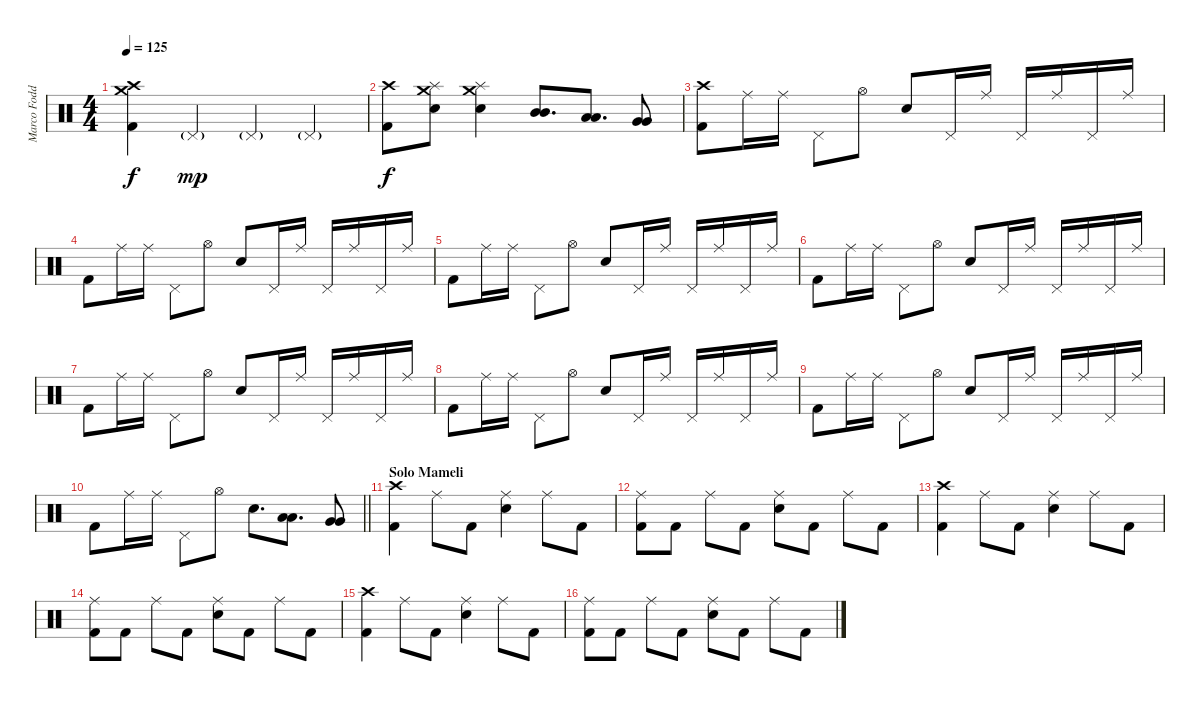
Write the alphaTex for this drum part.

\track ("Marco Foddis " "Marco Fodd") {instrument percussion}
\staff {score}
\articulation defaults
\ts (4 4)
\tempo 125
\clef neutral
\ks c
("Crash high (hit)" "Crash medium (hit)" "Kick (hit) 2").4{dy f} "Pedal Hi-Hat (hit)"{g}.4{dy mp} "Pedal Hi-Hat (hit)"{g}.4 "Pedal Hi-Hat (hit)"{g}.4 |
("Crash high (hit)" "Kick (hit) 2").8{dy f} ("Crash medium (hit)" "Splash (hit)" "Electric Snare (hit)").8 ("Crash medium (hit)" "Splash (hit)" "Electric Snare (hit)").4 ("Mid Tom (hit)" "Mid Tom (hit)").8{d} ("Low Tom (hit)" "Low Tom (hit)").8{d} ("Very Low Tom (hit)" "Very Low Tom (hit)").8 |
("Crash high (hit)" "Kick (hit) 2").8 "Ride (middle)".16 "Ride (middle)".16 "Pedal Hi-Hat (hit)".8 "Hi-Hat (open)".8 "Electric Snare (hit)".8 "Pedal Hi-Hat (hit)".16 "Ride (middle)".16 "Pedal Hi-Hat (hit)".16 "Ride (middle)".16 "Pedal Hi-Hat (hit)".16 "Ride (middle)".16 |
"Kick (hit) 2".8 "Ride (middle)".16 "Ride (middle)".16 "Pedal Hi-Hat (hit)".8 "Hi-Hat (open)".8 "Electric Snare (hit)".8 "Pedal Hi-Hat (hit)".16 "Ride (middle)".16 "Pedal Hi-Hat (hit)".16 "Ride (middle)".16 "Pedal Hi-Hat (hit)".16 "Ride (middle)".16 |
"Kick (hit) 2".8 "Ride (middle)".16 "Ride (middle)".16 "Pedal Hi-Hat (hit)".8 "Hi-Hat (open)".8 "Electric Snare (hit)".8 "Pedal Hi-Hat (hit)".16 "Ride (middle)".16 "Pedal Hi-Hat (hit)".16 "Ride (middle)".16 "Pedal Hi-Hat (hit)".16 "Ride (middle)".16 |
"Kick (hit) 2".8 "Ride (middle)".16 "Ride (middle)".16 "Pedal Hi-Hat (hit)".8 "Hi-Hat (open)".8 "Electric Snare (hit)".8 "Pedal Hi-Hat (hit)".16 "Ride (middle)".16 "Pedal Hi-Hat (hit)".16 "Ride (middle)".16 "Pedal Hi-Hat (hit)".16 "Ride (middle)".16 |
"Kick (hit) 2".8 "Ride (middle)".16 "Ride (middle)".16 "Pedal Hi-Hat (hit)".8 "Hi-Hat (open)".8 "Electric Snare (hit)".8 "Pedal Hi-Hat (hit)".16 "Ride (middle)".16 "Pedal Hi-Hat (hit)".16 "Ride (middle)".16 "Pedal Hi-Hat (hit)".16 "Ride (middle)".16 |
"Kick (hit) 2".8 "Ride (middle)".16 "Ride (middle)".16 "Pedal Hi-Hat (hit)".8 "Hi-Hat (open)".8 "Electric Snare (hit)".8 "Pedal Hi-Hat (hit)".16 "Ride (middle)".16 "Pedal Hi-Hat (hit)".16 "Ride (middle)".16 "Pedal Hi-Hat (hit)".16 "Ride (middle)".16 |
"Kick (hit) 2".8 "Ride (middle)".16 "Ride (middle)".16 "Pedal Hi-Hat (hit)".8 "Hi-Hat (open)".8 "Electric Snare (hit)".8 "Pedal Hi-Hat (hit)".16 "Ride (middle)".16 "Pedal Hi-Hat (hit)".16 "Ride (middle)".16 "Pedal Hi-Hat (hit)".16 "Ride (middle)".16 |
\barLineRight lightlight "Kick (hit) 2".8 "Ride (middle)".16 "Ride (middle)".16 "Pedal Hi-Hat (hit)".8 "Hi-Hat (open)".8 "Electric Snare (hit)".8{d}
("Low Tom (hit)" "Low Tom (hit)").8{d} ("Very Low Tom (hit)" "Very Low Tom (hit)").8 |
\section ("" "Solo Mameli")
("Crash high (hit)" "Kick (hit) 2").4 "Ride (middle)".8 "Kick (hit) 2".8 ("Ride (middle)" "Electric Snare (hit)").4 "Ride (middle)".8 "Kick (hit) 2".8 |
("Ride (middle)" "Kick (hit) 2").8 "Kick (hit) 2".8 "Ride (middle)".8 "Kick (hit) 2".8 ("Ride (middle)" "Electric Snare (hit)").8 "Kick (hit) 2".8 "Ride (middle)".8 "Kick (hit) 2".8 |
("Crash high (hit)" "Kick (hit) 2").4 "Ride (middle)".8 "Kick (hit) 2".8 ("Ride (middle)" "Electric Snare (hit)").4 "Ride (middle)".8 "Kick (hit) 2".8 |
("Ride (middle)" "Kick (hit) 2").8 "Kick (hit) 2".8 "Ride (middle)".8 "Kick (hit) 2".8 ("Ride (middle)" "Electric Snare (hit)").8 "Kick (hit) 2".8 "Ride (middle)".8 "Kick (hit) 2".8 |
("Crash high (hit)" "Kick (hit) 2").4 "Ride (middle)".8 "Kick (hit) 2".8 ("Ride (middle)" "Electric Snare (hit)").4 "Ride (middle)".8 "Kick (hit) 2".8 |
("Ride (middle)" "Kick (hit) 2").8 "Kick (hit) 2".8 "Ride (middle)".8 "Kick (hit) 2".8 ("Ride (middle)" "Electric Snare (hit)").8 "Kick (hit) 2".8 "Ride (middle)".8 "Kick (hit) 2".8
